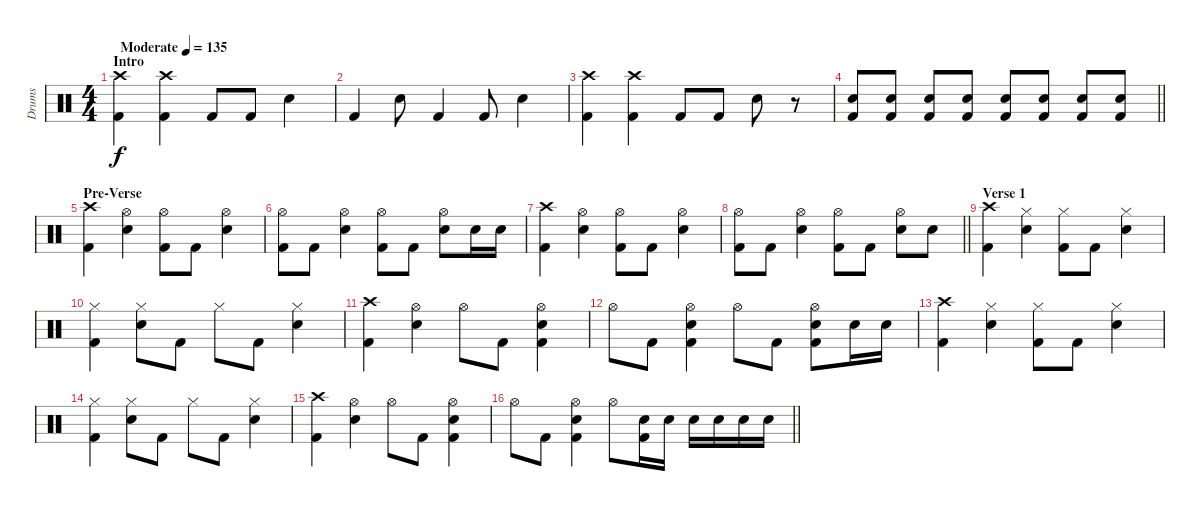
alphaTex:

\track ("Drums" "Drums") {instrument percussion}
\staff {score}
\articulation defaults
\ts (4 4)
\section ("" "Intro")
\tempo (135 "Moderate")
\clef neutral
\ks c
("Crash high (hit)" "Kick (hit) 2").4{dy f} ("Crash high (hit)" "Kick (hit) 2").4 "Kick (hit) 2".8 "Kick (hit) 2".8 "Electric Snare (hit)".4 |
"Kick (hit) 2".4 "Electric Snare (hit)".8 "Kick (hit) 2".4 "Kick (hit) 2".8 "Electric Snare (hit)".4 |
("Crash high (hit)" "Kick (hit) 2").4 ("Crash high (hit)" "Kick (hit) 2").4 "Kick (hit) 2".8 "Kick (hit) 2".8 "Electric Snare (hit)".8 r.8{volume 8} |
\barLineRight lightlight
("Electric Snare (hit)" "Kick (hit) 2").8{volume 16} ("Electric Snare (hit)" "Kick (hit) 2").8 ("Electric Snare (hit)" "Kick (hit) 2").8 ("Electric Snare (hit)" "Kick (hit) 2").8 ("Electric Snare (hit)" "Kick (hit) 2").8 ("Electric Snare (hit)" "Kick (hit) 2").8 ("Electric Snare (hit)" "Kick (hit) 2").8 ("Electric Snare (hit)" "Kick (hit) 2").8 |
\section ("" "Pre-Verse")
("Crash high (hit)" "Kick (hit) 2").4 ("Hi-Hat (open)" "Electric Snare (hit)").4 ("Hi-Hat (open)" "Kick (hit) 2").8 "Kick (hit) 2".8 ("Hi-Hat (open)" "Electric Snare (hit)").4 |
("Hi-Hat (open)" "Kick (hit) 2").8 "Kick (hit) 2".8 ("Hi-Hat (open)" "Electric Snare (hit)").4 ("Hi-Hat (open)" "Kick (hit) 2").8 "Kick (hit) 2".8 ("Hi-Hat (open)" "Electric Snare (hit)").8 "Electric Snare (hit)".16 "Electric Snare (hit)".16 |
("Crash high (hit)" "Kick (hit) 2").4 ("Hi-Hat (open)" "Electric Snare (hit)").4 ("Hi-Hat (open)" "Kick (hit) 2").8 "Kick (hit) 2".8 ("Hi-Hat (open)" "Electric Snare (hit)").4 |
\barLineRight lightlight
("Hi-Hat (open)" "Kick (hit) 2").8 "Kick (hit) 2".8 ("Hi-Hat (open)" "Electric Snare (hit)").4 ("Hi-Hat (open)" "Kick (hit) 2").8 "Kick (hit) 2".8 ("Hi-Hat (open)" "Electric Snare (hit)").8 "Electric Snare (hit)".8 |
\section ("" "Verse 1")
("Crash high (hit)" "Kick (hit) 2").4 ("Hi-Hat (closed)" "Electric Snare (hit)").4 ("Hi-Hat (closed)" "Kick (hit) 2").8 "Kick (hit) 2".8 ("Hi-Hat (closed)" "Electric Snare (hit)").4 |
("Hi-Hat (closed)" "Kick (hit) 2").4 ("Hi-Hat (closed)" "Electric Snare (hit)").8 "Kick (hit) 2".8 "Hi-Hat (closed)".8 "Kick (hit) 2".8 ("Hi-Hat (closed)" "Electric Snare (hit)").4 |
("Crash high (hit)" "Kick (hit) 2").4 ("Hi-Hat (open)" "Electric Snare (hit)").4 "Hi-Hat (open)".8 "Kick (hit) 2".8 ("Hi-Hat (open)" "Electric Snare (hit)" "Kick (hit) 2").4 |
"Hi-Hat (open)".8 "Kick (hit) 2".8 ("Hi-Hat (open)" "Electric Snare (hit)" "Kick (hit) 2").4 "Hi-Hat (open)".8 "Kick (hit) 2".8 ("Hi-Hat (open)" "Electric Snare (hit)" "Kick (hit) 2").8 "Electric Snare (hit)".16 "Electric Snare (hit)".16 |
("Crash high (hit)" "Kick (hit) 2").4 ("Hi-Hat (closed)" "Electric Snare (hit)").4 ("Hi-Hat (closed)" "Kick (hit) 2").8 "Kick (hit) 2".8 ("Hi-Hat (closed)" "Electric Snare (hit)").4 |
("Hi-Hat (closed)" "Kick (hit) 2").4 ("Hi-Hat (closed)" "Electric Snare (hit)").8 "Kick (hit) 2".8 "Hi-Hat (closed)".8 "Kick (hit) 2".8 ("Hi-Hat (closed)" "Electric Snare (hit)").4 |
("Crash high (hit)" "Kick (hit) 2").4 ("Hi-Hat (open)" "Electric Snare (hit)").4 "Hi-Hat (open)".8 "Kick (hit) 2".8 ("Hi-Hat (open)" "Electric Snare (hit)" "Kick (hit) 2").4 |
\barLineRight lightlight "Hi-Hat (open)".8 "Kick (hit) 2".8
("Hi-Hat (open)" "Electric Snare (hit)" "Kick (hit) 2").4 "Hi-Hat (open)".8 ("Electric Snare (hit)" "Kick (hit) 2").16 "Electric Snare (hit)".16 "Electric Snare (hit)".16 "Electric Snare (hit)".16 "Electric Snare (hit)".16 "Electric Snare (hit)".16
